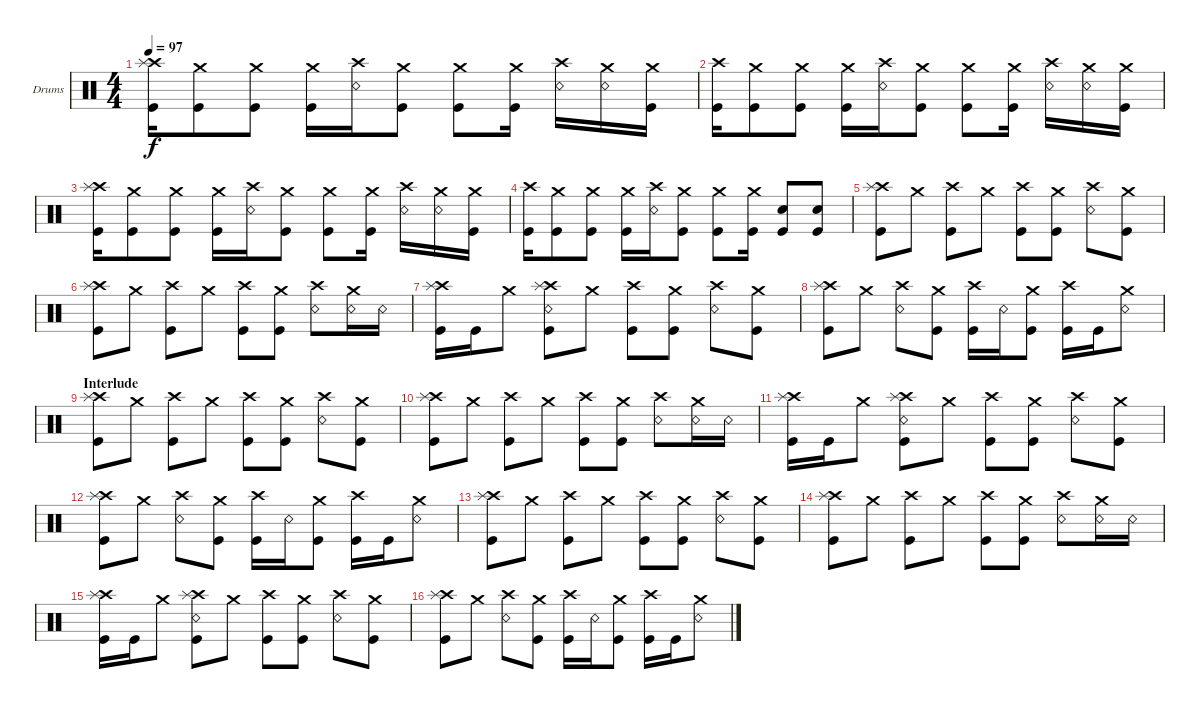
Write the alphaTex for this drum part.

\bracketExtendMode groupsimilarinstruments
\firstSystemTrackNameOrientation horizontal
\otherSystemsTrackNameOrientation horizontal
\track ("Drumkit" "Drums") {instrument percussion}
\staff {score}
\articulation defaults
\ts (4 4)
\tempo 97
\clef neutral
\scale
0.333333
\ks c
("Kick (hit)" "Crash high (hit)" "Splash (hit)").16{dy f} ("Kick (hit)" "Crash medium (hit)").8 ("Kick (hit)" "Crash medium (hit)").8 ("Kick (hit)" "Crash medium (hit)").16 ("Snare (rim shot)" "Crash high (hit)").16 ("Kick (hit)" "Crash medium (hit)").8 ("Kick (hit)" "Crash medium (hit)").8 ("Kick (hit)" "Crash medium (hit)").16 ("Snare (rim shot)" "Crash high (hit)").16 ("Snare (rim shot)" "Crash medium (hit)").16 ("Kick (hit)" "Crash medium (hit)").16 |
\scale
0.333333 ("Kick (hit)" "Crash high (hit)").16 ("Kick (hit)" "Crash medium (hit)").8 ("Kick (hit)" "Crash medium (hit)").8 ("Kick (hit)" "Crash medium (hit)").16 ("Snare (rim shot)" "Crash high (hit)").16 ("Kick (hit)" "Crash medium (hit)").8 ("Kick (hit)" "Crash medium (hit)").8 ("Kick (hit)" "Crash medium (hit)").16 ("Snare (rim shot)" "Crash high (hit)").16 ("Snare (rim shot)" "Crash medium (hit)").16 ("Kick (hit)" "Crash medium (hit)").16 |
\scale
0.333333 ("Kick (hit)" "Crash high (hit)" "Splash (hit)").16 ("Kick (hit)" "Crash medium (hit)").8 ("Kick (hit)" "Crash medium (hit)").8 ("Kick (hit)" "Crash medium (hit)").16 ("Snare (rim shot)" "Crash high (hit)").16 ("Kick (hit)" "Crash medium (hit)").8 ("Kick (hit)" "Crash medium (hit)").8 ("Kick (hit)" "Crash medium (hit)").16 ("Snare (rim shot)" "Crash high (hit)").16 ("Snare (rim shot)" "Crash medium (hit)").16 ("Kick (hit)" "Crash medium (hit)").16 |
\scale
0.333333 ("Kick (hit)" "Crash high (hit)").16 ("Kick (hit)" "Crash medium (hit)").8 ("Kick (hit)" "Crash medium (hit)").8 ("Kick (hit)" "Crash medium (hit)").16 ("Snare (rim shot)" "Crash high (hit)").16 ("Kick (hit)" "Crash medium (hit)").8 ("Kick (hit)" "Crash medium (hit)").8 ("Kick (hit)" "Crash medium (hit)").16 ("Snare (hit) 2" "Kick (hit)").8 ("Kick (hit)" "Snare (hit) 2").8 |
\scale
0.333333 ("Kick (hit)" "Crash high (hit)" "Splash (hit)").8 "Crash medium (hit)".8 ("Kick (hit)" "Crash high (hit)").8 "Crash medium (hit)".8 ("Kick (hit)" "Crash high (hit)").8 ("Kick (hit)" "Crash medium (hit)").8 ("Snare (rim shot)" "Crash high (hit)").8 ("Kick (hit)" "Crash medium (hit)").8 |
\scale
0.333333 ("Kick (hit)" "Crash high (hit)" "Splash (hit)").8 "Crash medium (hit)".8 ("Kick (hit)" "Crash high (hit)").8 "Crash medium (hit)".8 ("Kick (hit)" "Crash high (hit)").8 ("Kick (hit)" "Crash medium (hit)").8 ("Snare (rim shot)" "Crash high (hit)").8 ("Snare (rim shot)" "Crash medium (hit)").16 "Snare (rim shot)".16 |
\scale
0.333333 ("Kick (hit)" "Crash high (hit)" "Splash (hit)").16 "Kick (hit)".16 "Crash medium (hit)".8 ("Kick (hit)" "Crash high (hit)" "Splash (hit)" "Snare (rim shot)").8 "Crash medium (hit)".8 ("Kick (hit)" "Crash high (hit)").8 ("Kick (hit)" "Crash medium (hit)").8 ("Snare (rim shot)" "Crash high (hit)").8 ("Kick (hit)" "Crash medium (hit)").8 |
\scale
0.333333 ("Kick (hit)" "Crash high (hit)" "Splash (hit)").8 "Crash medium (hit)".8 ("Crash high (hit)" "Snare (rim shot)").8 ("Kick (hit)" "Crash medium (hit)").8 ("Kick (hit)" "Crash high (hit)").16 "Snare (rim shot)".16 ("Kick (hit)" "Crash medium (hit)").8 ("Kick (hit)" "Crash high (hit)").16 "Kick (hit)".16 ("Snare (rim shot)" "Crash medium (hit)").8 |
\section ("" "Interlude")
\scale
0.333333 ("Kick (hit)" "Crash high (hit)" "Splash (hit)").8 "Crash medium (hit)".8 ("Kick (hit)" "Crash high (hit)").8 "Crash medium (hit)".8 ("Kick (hit)" "Crash high (hit)").8 ("Kick (hit)" "Crash medium (hit)").8 ("Snare (rim shot)" "Crash high (hit)").8 ("Kick (hit)" "Crash medium (hit)").8 |
\scale
0.333333 ("Kick (hit)" "Crash high (hit)" "Splash (hit)").8 "Crash medium (hit)".8 ("Kick (hit)" "Crash high (hit)").8 "Crash medium (hit)".8 ("Kick (hit)" "Crash high (hit)").8 ("Kick (hit)" "Crash medium (hit)").8 ("Snare (rim shot)" "Crash high (hit)").8 ("Snare (rim shot)" "Crash medium (hit)").16 "Snare (rim shot)".16 |
\scale
0.333333 ("Kick (hit)" "Crash high (hit)" "Splash (hit)").16 "Kick (hit)".16 "Crash medium (hit)".8 ("Kick (hit)" "Crash high (hit)" "Splash (hit)" "Snare (rim shot)").8 "Crash medium (hit)".8 ("Kick (hit)" "Crash high (hit)").8 ("Kick (hit)" "Crash medium (hit)").8 ("Snare (rim shot)" "Crash high (hit)").8 ("Kick (hit)" "Crash medium (hit)").8 |
\scale
0.333333 ("Kick (hit)" "Crash high (hit)" "Splash (hit)").8 "Crash medium (hit)".8 ("Crash high (hit)" "Snare (rim shot)").8 ("Kick (hit)" "Crash medium (hit)").8 ("Kick (hit)" "Crash high (hit)").16 "Snare (rim shot)".16 ("Kick (hit)" "Crash medium (hit)").8 ("Kick (hit)" "Crash high (hit)").16 "Kick (hit)".16 ("Snare (rim shot)" "Crash medium (hit)").8 |
\scale
0.333333 ("Kick (hit)" "Crash high (hit)" "Splash (hit)").8 "Crash medium (hit)".8 ("Kick (hit)" "Crash high (hit)").8 "Crash medium (hit)".8 ("Kick (hit)" "Crash high (hit)").8 ("Kick (hit)" "Crash medium (hit)").8 ("Snare (rim shot)" "Crash high (hit)").8 ("Kick (hit)" "Crash medium (hit)").8 |
\scale
0.333333 ("Kick (hit)" "Crash high (hit)" "Splash (hit)").8 "Crash medium (hit)".8 ("Kick (hit)" "Crash high (hit)").8 "Crash medium (hit)".8 ("Kick (hit)" "Crash high (hit)").8 ("Kick (hit)" "Crash medium (hit)").8 ("Snare (rim shot)" "Crash high (hit)").8 ("Snare (rim shot)" "Crash medium (hit)").16 "Snare (rim shot)".16 |
\scale
0.333333 ("Kick (hit)" "Crash high (hit)" "Splash (hit)").16 "Kick (hit)".16 "Crash medium (hit)".8 ("Kick (hit)" "Crash high (hit)" "Splash (hit)" "Snare (rim shot)").8 "Crash medium (hit)".8 ("Kick (hit)" "Crash high (hit)").8 ("Kick (hit)" "Crash medium (hit)").8 ("Snare (rim shot)" "Crash high (hit)").8 ("Kick (hit)" "Crash medium (hit)").8 |
\scale
0.333333 ("Kick (hit)" "Crash high (hit)" "Splash (hit)").8 "Crash medium (hit)".8 ("Crash high (hit)" "Snare (rim shot)").8 ("Kick (hit)" "Crash medium (hit)").8 ("Kick (hit)" "Crash high (hit)").16 "Snare (rim shot)".16 ("Kick (hit)" "Crash medium (hit)").8 ("Kick (hit)" "Crash high (hit)").16 "Kick (hit)".16 ("Snare (rim shot)" "Crash medium (hit)").8
